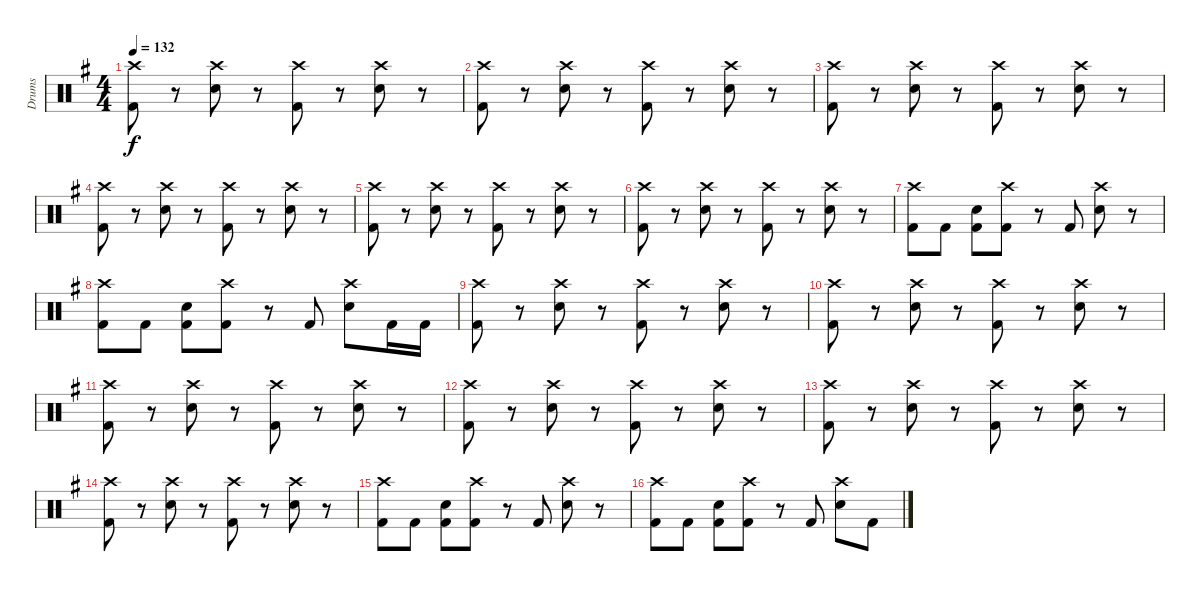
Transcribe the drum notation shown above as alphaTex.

\track ("Drums" "Drums") {instrument percussion}
\staff {score}
\articulation defaults
\ts (4 4)
\tempo 132
\clef neutral
\ks eminor
("Crash high (hit)" "Kick (hit) 2").8{dy f} r.8 ("Crash high (hit)" "Electric Snare (hit)").8 r.8 ("Crash high (hit)" "Kick (hit) 2").8 r.8 ("Crash high (hit)" "Electric Snare (hit)").8 r.8 |
("Crash high (hit)" "Kick (hit) 2").8 r.8 ("Crash high (hit)" "Electric Snare (hit)").8 r.8 ("Crash high (hit)" "Kick (hit) 2").8 r.8 ("Crash high (hit)" "Electric Snare (hit)").8 r.8 |
("Crash high (hit)" "Kick (hit) 2").8 r.8 ("Crash high (hit)" "Electric Snare (hit)").8 r.8 ("Crash high (hit)" "Kick (hit) 2").8 r.8 ("Crash high (hit)" "Electric Snare (hit)").8 r.8 |
("Crash high (hit)" "Kick (hit) 2").8 r.8 ("Crash high (hit)" "Electric Snare (hit)").8 r.8 ("Crash high (hit)" "Kick (hit) 2").8 r.8 ("Crash high (hit)" "Electric Snare (hit)").8 r.8 |
("Crash high (hit)" "Kick (hit) 2").8 r.8 ("Crash high (hit)" "Electric Snare (hit)").8 r.8 ("Crash high (hit)" "Kick (hit) 2").8 r.8 ("Crash high (hit)" "Electric Snare (hit)").8 r.8 |
("Crash high (hit)" "Kick (hit) 2").8 r.8 ("Crash high (hit)" "Electric Snare (hit)").8 r.8 ("Crash high (hit)" "Kick (hit) 2").8 r.8 ("Crash high (hit)" "Electric Snare (hit)").8 r.8 |
("Crash high (hit)" "Kick (hit) 2").8 "Kick (hit) 2".8 ("Electric Snare (hit)" "Kick (hit) 2").8 ("Crash high (hit)" "Kick (hit) 2").8 r.8 "Kick (hit) 2".8 ("Crash high (hit)" "Electric Snare (hit)").8 r.8 |
("Crash high (hit)" "Kick (hit) 2").8 "Kick (hit) 2".8 ("Electric Snare (hit)" "Kick (hit) 2").8 ("Crash high (hit)" "Kick (hit) 2").8 r.8 "Kick (hit) 2".8 ("Crash high (hit)" "Electric Snare (hit)").8 "Kick (hit) 2".16 "Kick (hit) 2".16 |
("Crash high (hit)" "Kick (hit) 2").8 r.8 ("Crash high (hit)" "Electric Snare (hit)").8 r.8 ("Crash high (hit)" "Kick (hit) 2").8 r.8 ("Crash high (hit)" "Electric Snare (hit)").8 r.8 |
("Crash high (hit)" "Kick (hit) 2").8 r.8 ("Crash high (hit)" "Electric Snare (hit)").8 r.8 ("Crash high (hit)" "Kick (hit) 2").8 r.8 ("Crash high (hit)" "Electric Snare (hit)").8 r.8 |
("Crash high (hit)" "Kick (hit) 2").8 r.8 ("Crash high (hit)" "Electric Snare (hit)").8 r.8 ("Crash high (hit)" "Kick (hit) 2").8 r.8 ("Crash high (hit)" "Electric Snare (hit)").8 r.8 |
("Crash high (hit)" "Kick (hit) 2").8 r.8 ("Crash high (hit)" "Electric Snare (hit)").8 r.8 ("Crash high (hit)" "Kick (hit) 2").8 r.8 ("Crash high (hit)" "Electric Snare (hit)").8 r.8 |
("Crash high (hit)" "Kick (hit) 2").8 r.8 ("Crash high (hit)" "Electric Snare (hit)").8 r.8 ("Crash high (hit)" "Kick (hit) 2").8 r.8 ("Crash high (hit)" "Electric Snare (hit)").8 r.8 |
("Crash high (hit)" "Kick (hit) 2").8 r.8 ("Crash high (hit)" "Electric Snare (hit)").8 r.8 ("Crash high (hit)" "Kick (hit) 2").8 r.8 ("Crash high (hit)" "Electric Snare (hit)").8 r.8 |
("Crash high (hit)" "Kick (hit) 2").8 "Kick (hit) 2".8 ("Electric Snare (hit)" "Kick (hit) 2").8 ("Crash high (hit)" "Kick (hit) 2").8 r.8 "Kick (hit) 2".8 ("Crash high (hit)" "Electric Snare (hit)").8 r.8 |
("Crash high (hit)" "Kick (hit) 2").8 "Kick (hit) 2".8 ("Electric Snare (hit)" "Kick (hit) 2").8 ("Crash high (hit)" "Kick (hit) 2").8 r.8 "Kick (hit) 2".8 ("Crash high (hit)" "Electric Snare (hit)").8 "Kick (hit) 2".8
